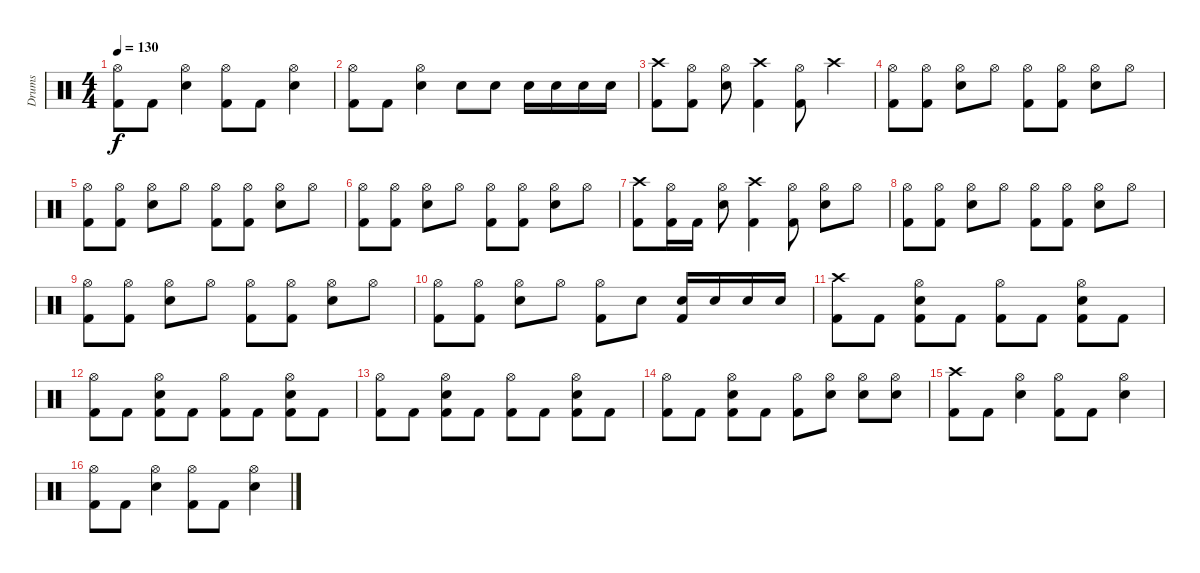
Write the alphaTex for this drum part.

\track ("Drums" "Drums") {instrument percussion}
\staff {score}
\articulation defaults
\ts (4 4)
\tempo 130
\clef neutral
\ks c
("Hi-Hat (open)" "Kick (hit) 2").8{dy f} "Kick (hit) 2".8 ("Hi-Hat (open)" "Electric Snare (hit)").4 ("Hi-Hat (open)" "Kick (hit) 2").8 "Kick (hit) 2".8 ("Hi-Hat (open)" "Electric Snare (hit)").4 |
("Hi-Hat (open)" "Kick (hit) 2").8 "Kick (hit) 2".8 ("Hi-Hat (open)" "Electric Snare (hit)").4 "Electric Snare (hit)".8 "Electric Snare (hit)".8 "Electric Snare (hit)".16 "Electric Snare (hit)".16 "Electric Snare (hit)".16 "Electric Snare (hit)".16 |
("Crash high (hit)" "Kick (hit) 2").8 ("Hi-Hat (open)" "Kick (hit) 2").8 ("Hi-Hat (open)" "Electric Snare (hit)").8 ("Crash high (hit)" "Kick (hit) 2").4 ("Hi-Hat (open)" "Kick (hit) 2").8 "Crash high (hit)".4 |
("Hi-Hat (open)" "Kick (hit) 2").8 ("Hi-Hat (open)" "Kick (hit) 2").8 ("Hi-Hat (open)" "Electric Snare (hit)").8 "Hi-Hat (open)".8 ("Hi-Hat (open)" "Kick (hit) 2").8 ("Hi-Hat (open)" "Kick (hit) 2").8 ("Hi-Hat (open)" "Electric Snare (hit)").8 "Hi-Hat (open)".8 |
("Hi-Hat (open)" "Kick (hit) 2").8 ("Hi-Hat (open)" "Kick (hit) 2").8 ("Hi-Hat (open)" "Electric Snare (hit)").8 "Hi-Hat (open)".8 ("Hi-Hat (open)" "Kick (hit) 2").8 ("Hi-Hat (open)" "Kick (hit) 2").8 ("Hi-Hat (open)" "Electric Snare (hit)").8 "Hi-Hat (open)".8 |
("Hi-Hat (open)" "Kick (hit) 2").8 ("Hi-Hat (open)" "Kick (hit) 2").8 ("Hi-Hat (open)" "Electric Snare (hit)").8 "Hi-Hat (open)".8 ("Hi-Hat (open)" "Kick (hit) 2").8 ("Hi-Hat (open)" "Kick (hit) 2").8 ("Hi-Hat (open)" "Electric Snare (hit)").8 "Hi-Hat (open)".8 |
("Crash high (hit)" "Kick (hit) 2").8 ("Hi-Hat (open)" "Kick (hit) 2").16 "Kick (hit) 2".16 ("Hi-Hat (open)" "Electric Snare (hit)").8 ("Crash high (hit)" "Kick (hit) 2").4 ("Hi-Hat (open)" "Kick (hit) 2").8 ("Hi-Hat (open)" "Electric Snare (hit)").8 "Hi-Hat (open)".8 |
("Hi-Hat (open)" "Kick (hit) 2").8 ("Hi-Hat (open)" "Kick (hit) 2").8 ("Hi-Hat (open)" "Electric Snare (hit)").8 "Hi-Hat (open)".8 ("Hi-Hat (open)" "Kick (hit) 2").8 ("Hi-Hat (open)" "Kick (hit) 2").8 ("Hi-Hat (open)" "Electric Snare (hit)").8 "Hi-Hat (open)".8 |
("Hi-Hat (open)" "Kick (hit) 2").8 ("Hi-Hat (open)" "Kick (hit) 2").8 ("Hi-Hat (open)" "Electric Snare (hit)").8 "Hi-Hat (open)".8 ("Hi-Hat (open)" "Kick (hit) 2").8 ("Hi-Hat (open)" "Kick (hit) 2").8 ("Hi-Hat (open)" "Electric Snare (hit)").8 "Hi-Hat (open)".8 |
("Hi-Hat (open)" "Kick (hit) 2").8 ("Hi-Hat (open)" "Kick (hit) 2").8 ("Hi-Hat (open)" "Electric Snare (hit)").8 "Hi-Hat (open)".8 ("Hi-Hat (open)" "Kick (hit) 2").8 "Electric Snare (hit)".8 ("Electric Snare (hit)" "Kick (hit) 2").16 "Electric Snare (hit)".16 "Electric Snare (hit)".16 "Electric Snare (hit)".16 |
("Crash high (hit)" "Kick (hit) 2").8 "Kick (hit) 2".8 ("Hi-Hat (open)" "Electric Snare (hit)" "Kick (hit) 2").8 "Kick (hit) 2".8 ("Hi-Hat (open)" "Kick (hit) 2").8 "Kick (hit) 2".8 ("Hi-Hat (open)" "Electric Snare (hit)" "Kick (hit) 2").8 "Kick (hit) 2".8 |
("Hi-Hat (open)" "Kick (hit) 2").8 "Kick (hit) 2".8 ("Hi-Hat (open)" "Electric Snare (hit)" "Kick (hit) 2").8 "Kick (hit) 2".8 ("Hi-Hat (open)" "Kick (hit) 2").8 "Kick (hit) 2".8 ("Hi-Hat (open)" "Electric Snare (hit)" "Kick (hit) 2").8 "Kick (hit) 2".8 |
("Hi-Hat (open)" "Kick (hit) 2").8 "Kick (hit) 2".8 ("Hi-Hat (open)" "Electric Snare (hit)" "Kick (hit) 2").8 "Kick (hit) 2".8 ("Hi-Hat (open)" "Kick (hit) 2").8 "Kick (hit) 2".8 ("Hi-Hat (open)" "Electric Snare (hit)" "Kick (hit) 2").8 "Kick (hit) 2".8 |
("Hi-Hat (open)" "Kick (hit) 2").8 "Kick (hit) 2".8 ("Hi-Hat (open)" "Electric Snare (hit)" "Kick (hit) 2").8 "Kick (hit) 2".8 ("Hi-Hat (open)" "Kick (hit) 2").8 ("Hi-Hat (open)" "Electric Snare (hit)").8 ("Hi-Hat (open)" "Electric Snare (hit)").8 ("Hi-Hat (open)" "Electric Snare (hit)").8 |
("Crash high (hit)" "Kick (hit) 2").8 "Kick (hit) 2".8 ("Hi-Hat (open)" "Electric Snare (hit)").4 ("Hi-Hat (open)" "Kick (hit) 2").8 "Kick (hit) 2".8 ("Hi-Hat (open)" "Electric Snare (hit)").4 |
("Hi-Hat (open)" "Kick (hit) 2").8 "Kick (hit) 2".8 ("Hi-Hat (open)" "Electric Snare (hit)").4 ("Hi-Hat (open)" "Kick (hit) 2").8 "Kick (hit) 2".8 ("Hi-Hat (open)" "Electric Snare (hit)").4
